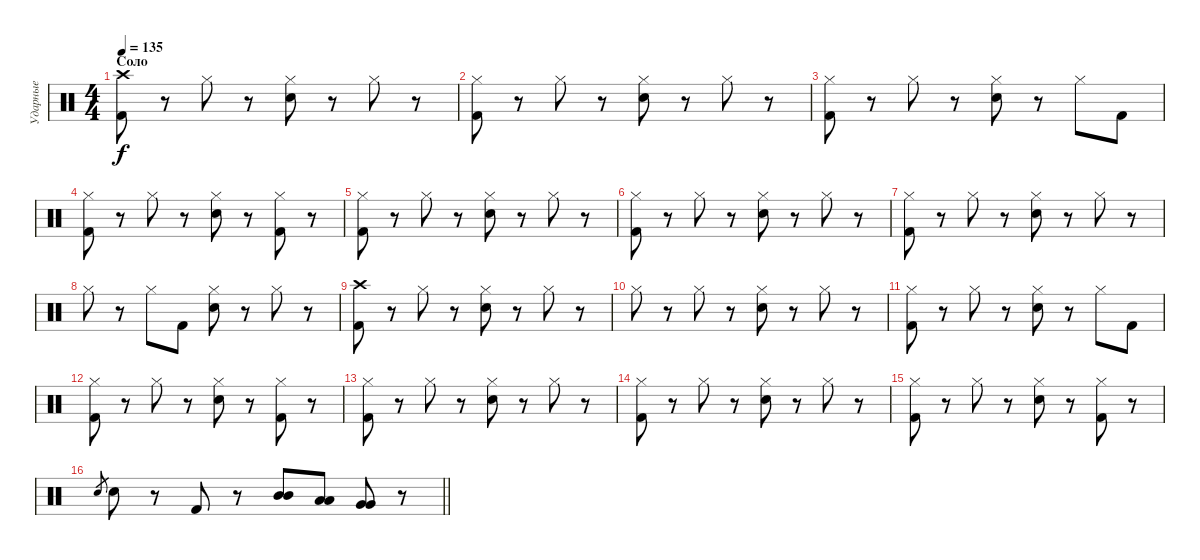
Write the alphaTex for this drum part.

\track ("Ударные" "Ударные") {instrument percussion}
\staff {score}
\articulation defaults
\ts (4 4)
\section ("" "Соло")
\tempo 135
\clef neutral
\ks c
("Kick (hit) 2" "Crash high (hit)").8{dy f} r.8 "Hi-Hat (closed)".8 r.8 ("Hi-Hat (closed)" "Electric Snare (hit)").8 r.8 "Hi-Hat (closed)".8 r.8 |
("Hi-Hat (closed)" "Kick (hit) 2").8 r.8 "Hi-Hat (closed)".8 r.8 ("Hi-Hat (closed)" "Electric Snare (hit)").8 r.8 "Hi-Hat (closed)".8 r.8 |
("Hi-Hat (closed)" "Kick (hit) 2").8 r.8 "Hi-Hat (closed)".8 r.8 ("Hi-Hat (closed)" "Electric Snare (hit)").8 r.8 "Hi-Hat (closed)".8 "Kick (hit) 2".8 |
("Hi-Hat (closed)" "Kick (hit) 2").8 r.8 "Hi-Hat (closed)".8 r.8 ("Hi-Hat (closed)" "Electric Snare (hit)").8 r.8 ("Hi-Hat (closed)" "Kick (hit) 2").8 r.8 |
("Hi-Hat (closed)" "Kick (hit) 2").8 r.8 "Hi-Hat (closed)".8 r.8 ("Hi-Hat (closed)" "Electric Snare (hit)").8 r.8 "Hi-Hat (closed)".8 r.8 |
("Hi-Hat (closed)" "Kick (hit) 2").8 r.8 "Hi-Hat (closed)".8 r.8 ("Hi-Hat (closed)" "Electric Snare (hit)").8 r.8 "Hi-Hat (closed)".8 r.8 |
("Hi-Hat (closed)" "Kick (hit) 2").8 r.8 "Hi-Hat (closed)".8 r.8 ("Hi-Hat (closed)" "Electric Snare (hit)").8 r.8 "Hi-Hat (closed)".8 r.8 |
"Hi-Hat (closed)".8 r.8 "Hi-Hat (closed)".8 "Kick (hit) 2".8 ("Hi-Hat (closed)" "Electric Snare (hit)").8 r.8 "Hi-Hat (closed)".8 r.8 |
("Kick (hit) 2" "Crash high (hit)").8 r.8 "Hi-Hat (closed)".8 r.8 ("Hi-Hat (closed)" "Electric Snare (hit)").8 r.8 "Hi-Hat (closed)".8 r.8 |
"Hi-Hat (closed)".8 r.8 "Hi-Hat (closed)".8 r.8 ("Hi-Hat (closed)" "Electric Snare (hit)").8 r.8 "Hi-Hat (closed)".8 r.8 |
("Hi-Hat (closed)" "Kick (hit) 2").8 r.8 "Hi-Hat (closed)".8 r.8 ("Hi-Hat (closed)" "Electric Snare (hit)").8 r.8 "Hi-Hat (closed)".8 "Kick (hit) 2".8 |
("Hi-Hat (closed)" "Kick (hit) 2").8 r.8 "Hi-Hat (closed)".8 r.8 ("Hi-Hat (closed)" "Electric Snare (hit)").8 r.8 ("Hi-Hat (closed)" "Kick (hit) 2").8 r.8 |
("Hi-Hat (closed)" "Kick (hit) 2").8 r.8 "Hi-Hat (closed)".8 r.8 ("Hi-Hat (closed)" "Electric Snare (hit)").8 r.8 "Hi-Hat (closed)".8 r.8 |
("Hi-Hat (closed)" "Kick (hit) 2").8 r.8 "Hi-Hat (closed)".8 r.8 ("Hi-Hat (closed)" "Electric Snare (hit)").8 r.8 "Hi-Hat (closed)".8 r.8 |
("Hi-Hat (closed)" "Kick (hit) 2").8 r.8 "Hi-Hat (closed)".8 r.8 ("Hi-Hat (closed)" "Electric Snare (hit)").8 r.8 ("Hi-Hat (closed)" "Kick (hit) 2").8 r.8 |
\barLineRight lightlight "Electric Snare (hit)".8{gr} "Electric Snare (hit)".8
r.8 "Kick (hit) 2".8 r.8 ("Mid Tom (hit)" "Mid Tom (hit)").8 ("Low Tom (hit)" "Low Tom (hit)").8 ("Very Low Tom (hit)" "Very Low Tom (hit)").8 r.8
